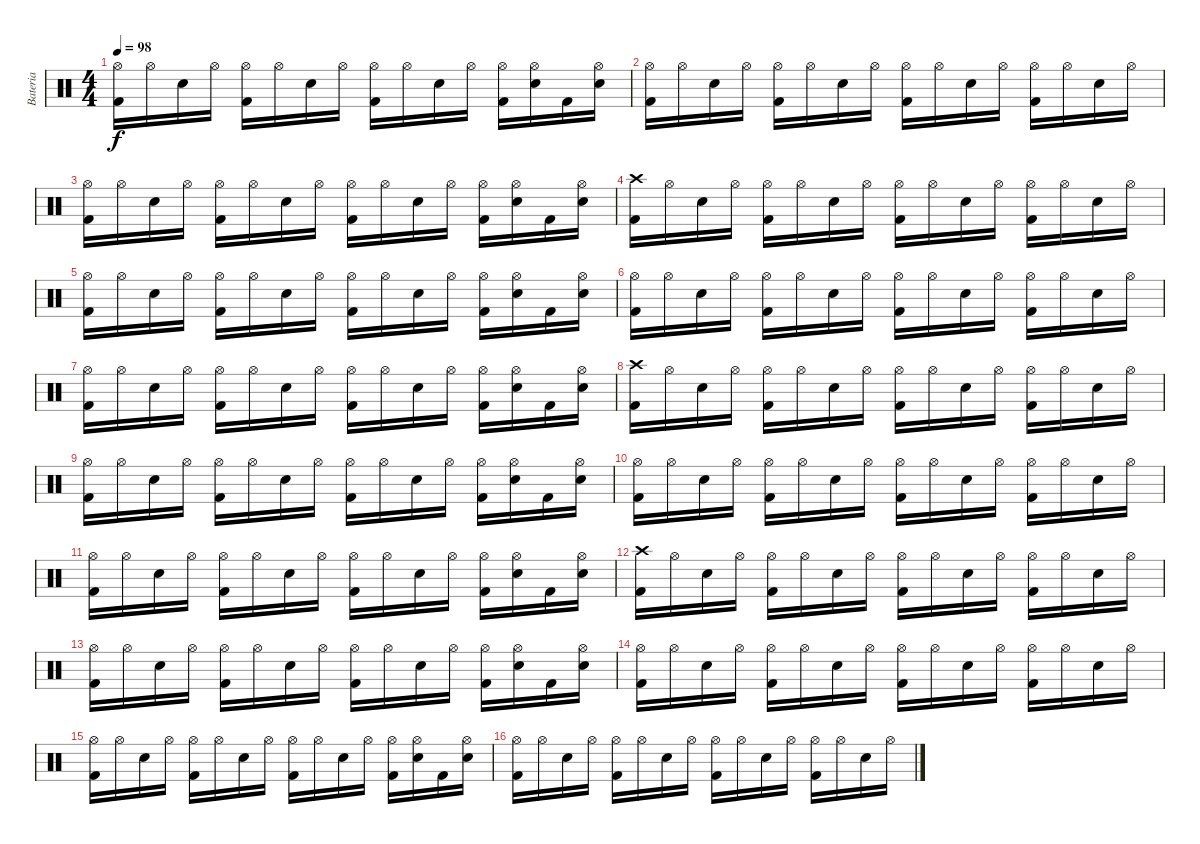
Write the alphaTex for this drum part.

\track ("Bateria" "Bateria") {instrument percussion}
\staff {score}
\articulation defaults
\ts (4 4)
\tempo 98
\clef neutral
\ks c
("Hi-Hat (open)" "Kick (hit) 2").16{dy f} "Hi-Hat (open)".16 "Snare (hit) 2".16 "Hi-Hat (open)".16 ("Hi-Hat (open)" "Kick (hit) 2").16 "Hi-Hat (open)".16 "Snare (hit) 2".16 "Hi-Hat (open)".16 ("Hi-Hat (open)" "Kick (hit) 2").16 "Hi-Hat (open)".16 "Snare (hit) 2".16 "Hi-Hat (open)".16 ("Hi-Hat (open)" "Kick (hit) 2").16 ("Hi-Hat (open)" "Snare (hit) 2").16 "Kick (hit) 2".16 ("Hi-Hat (open)" "Snare (hit) 2").16 |
("Hi-Hat (open)" "Kick (hit) 2").16 "Hi-Hat (open)".16 "Snare (hit) 2".16 "Hi-Hat (open)".16 ("Hi-Hat (open)" "Kick (hit) 2").16 "Hi-Hat (open)".16 "Snare (hit) 2".16 "Hi-Hat (open)".16 ("Hi-Hat (open)" "Kick (hit) 2").16 "Hi-Hat (open)".16 "Snare (hit) 2".16 "Hi-Hat (open)".16 ("Hi-Hat (open)" "Kick (hit) 2").16 "Hi-Hat (open)".16 "Snare (hit) 2".16 "Hi-Hat (open)".16 |
("Hi-Hat (open)" "Kick (hit) 2").16 "Hi-Hat (open)".16 "Snare (hit) 2".16 "Hi-Hat (open)".16 ("Hi-Hat (open)" "Kick (hit) 2").16 "Hi-Hat (open)".16 "Snare (hit) 2".16 "Hi-Hat (open)".16 ("Hi-Hat (open)" "Kick (hit) 2").16 "Hi-Hat (open)".16 "Snare (hit) 2".16 "Hi-Hat (open)".16 ("Hi-Hat (open)" "Kick (hit) 2").16 ("Hi-Hat (open)" "Snare (hit) 2").16 "Kick (hit) 2".16 ("Hi-Hat (open)" "Snare (hit) 2").16 |
("Crash high (hit)" "Kick (hit) 2").16 "Hi-Hat (open)".16 "Snare (hit) 2".16 "Hi-Hat (open)".16 ("Hi-Hat (open)" "Kick (hit) 2").16 "Hi-Hat (open)".16 "Snare (hit) 2".16 "Hi-Hat (open)".16 ("Hi-Hat (open)" "Kick (hit) 2").16 "Hi-Hat (open)".16 "Snare (hit) 2".16 "Hi-Hat (open)".16 ("Hi-Hat (open)" "Kick (hit) 2").16 "Hi-Hat (open)".16 "Snare (hit) 2".16 "Hi-Hat (open)".16 |
("Hi-Hat (open)" "Kick (hit) 2").16 "Hi-Hat (open)".16 "Snare (hit) 2".16 "Hi-Hat (open)".16 ("Hi-Hat (open)" "Kick (hit) 2").16 "Hi-Hat (open)".16 "Snare (hit) 2".16 "Hi-Hat (open)".16 ("Hi-Hat (open)" "Kick (hit) 2").16 "Hi-Hat (open)".16 "Snare (hit) 2".16 "Hi-Hat (open)".16 ("Hi-Hat (open)" "Kick (hit) 2").16 ("Hi-Hat (open)" "Snare (hit) 2").16 "Kick (hit) 2".16 ("Hi-Hat (open)" "Snare (hit) 2").16 |
("Hi-Hat (open)" "Kick (hit) 2").16 "Hi-Hat (open)".16 "Snare (hit) 2".16 "Hi-Hat (open)".16 ("Hi-Hat (open)" "Kick (hit) 2").16 "Hi-Hat (open)".16 "Snare (hit) 2".16 "Hi-Hat (open)".16 ("Hi-Hat (open)" "Kick (hit) 2").16 "Hi-Hat (open)".16 "Snare (hit) 2".16 "Hi-Hat (open)".16 ("Hi-Hat (open)" "Kick (hit) 2").16 "Hi-Hat (open)".16 "Snare (hit) 2".16 "Hi-Hat (open)".16 |
("Hi-Hat (open)" "Kick (hit) 2").16 "Hi-Hat (open)".16 "Snare (hit) 2".16 "Hi-Hat (open)".16 ("Hi-Hat (open)" "Kick (hit) 2").16 "Hi-Hat (open)".16 "Snare (hit) 2".16 "Hi-Hat (open)".16 ("Hi-Hat (open)" "Kick (hit) 2").16 "Hi-Hat (open)".16 "Snare (hit) 2".16 "Hi-Hat (open)".16 ("Hi-Hat (open)" "Kick (hit) 2").16 ("Hi-Hat (open)" "Snare (hit) 2").16 "Kick (hit) 2".16 ("Hi-Hat (open)" "Snare (hit) 2").16 |
("Crash high (hit)" "Kick (hit) 2").16 "Hi-Hat (open)".16 "Snare (hit) 2".16 "Hi-Hat (open)".16 ("Hi-Hat (open)" "Kick (hit) 2").16 "Hi-Hat (open)".16 "Snare (hit) 2".16 "Hi-Hat (open)".16 ("Hi-Hat (open)" "Kick (hit) 2").16 "Hi-Hat (open)".16 "Snare (hit) 2".16 "Hi-Hat (open)".16 ("Hi-Hat (open)" "Kick (hit) 2").16 "Hi-Hat (open)".16 "Snare (hit) 2".16 "Hi-Hat (open)".16 |
("Hi-Hat (open)" "Kick (hit) 2").16 "Hi-Hat (open)".16 "Snare (hit) 2".16 "Hi-Hat (open)".16 ("Hi-Hat (open)" "Kick (hit) 2").16 "Hi-Hat (open)".16 "Snare (hit) 2".16 "Hi-Hat (open)".16 ("Hi-Hat (open)" "Kick (hit) 2").16 "Hi-Hat (open)".16 "Snare (hit) 2".16 "Hi-Hat (open)".16 ("Hi-Hat (open)" "Kick (hit) 2").16 ("Hi-Hat (open)" "Snare (hit) 2").16 "Kick (hit) 2".16 ("Hi-Hat (open)" "Snare (hit) 2").16 |
("Hi-Hat (open)" "Kick (hit) 2").16 "Hi-Hat (open)".16 "Snare (hit) 2".16 "Hi-Hat (open)".16 ("Hi-Hat (open)" "Kick (hit) 2").16 "Hi-Hat (open)".16 "Snare (hit) 2".16 "Hi-Hat (open)".16 ("Hi-Hat (open)" "Kick (hit) 2").16 "Hi-Hat (open)".16 "Snare (hit) 2".16 "Hi-Hat (open)".16 ("Hi-Hat (open)" "Kick (hit) 2").16 "Hi-Hat (open)".16 "Snare (hit) 2".16 "Hi-Hat (open)".16 |
("Hi-Hat (open)" "Kick (hit) 2").16 "Hi-Hat (open)".16 "Snare (hit) 2".16 "Hi-Hat (open)".16 ("Hi-Hat (open)" "Kick (hit) 2").16 "Hi-Hat (open)".16 "Snare (hit) 2".16 "Hi-Hat (open)".16 ("Hi-Hat (open)" "Kick (hit) 2").16 "Hi-Hat (open)".16 "Snare (hit) 2".16 "Hi-Hat (open)".16 ("Hi-Hat (open)" "Kick (hit) 2").16 ("Hi-Hat (open)" "Snare (hit) 2").16 "Kick (hit) 2".16 ("Hi-Hat (open)" "Snare (hit) 2").16 |
("Crash high (hit)" "Kick (hit) 2").16 "Hi-Hat (open)".16 "Snare (hit) 2".16 "Hi-Hat (open)".16 ("Hi-Hat (open)" "Kick (hit) 2").16 "Hi-Hat (open)".16 "Snare (hit) 2".16 "Hi-Hat (open)".16 ("Hi-Hat (open)" "Kick (hit) 2").16 "Hi-Hat (open)".16 "Snare (hit) 2".16 "Hi-Hat (open)".16 ("Hi-Hat (open)" "Kick (hit) 2").16 "Hi-Hat (open)".16 "Snare (hit) 2".16 "Hi-Hat (open)".16 |
("Hi-Hat (open)" "Kick (hit) 2").16 "Hi-Hat (open)".16 "Snare (hit) 2".16 "Hi-Hat (open)".16 ("Hi-Hat (open)" "Kick (hit) 2").16 "Hi-Hat (open)".16 "Snare (hit) 2".16 "Hi-Hat (open)".16 ("Hi-Hat (open)" "Kick (hit) 2").16 "Hi-Hat (open)".16 "Snare (hit) 2".16 "Hi-Hat (open)".16 ("Hi-Hat (open)" "Kick (hit) 2").16 ("Hi-Hat (open)" "Snare (hit) 2").16 "Kick (hit) 2".16 ("Hi-Hat (open)" "Snare (hit) 2").16 |
("Hi-Hat (open)" "Kick (hit) 2").16 "Hi-Hat (open)".16 "Snare (hit) 2".16 "Hi-Hat (open)".16 ("Hi-Hat (open)" "Kick (hit) 2").16 "Hi-Hat (open)".16 "Snare (hit) 2".16 "Hi-Hat (open)".16 ("Hi-Hat (open)" "Kick (hit) 2").16 "Hi-Hat (open)".16 "Snare (hit) 2".16 "Hi-Hat (open)".16 ("Hi-Hat (open)" "Kick (hit) 2").16 "Hi-Hat (open)".16 "Snare (hit) 2".16 "Hi-Hat (open)".16 |
("Hi-Hat (open)" "Kick (hit) 2").16 "Hi-Hat (open)".16 "Snare (hit) 2".16 "Hi-Hat (open)".16 ("Hi-Hat (open)" "Kick (hit) 2").16 "Hi-Hat (open)".16 "Snare (hit) 2".16 "Hi-Hat (open)".16 ("Hi-Hat (open)" "Kick (hit) 2").16 "Hi-Hat (open)".16 "Snare (hit) 2".16 "Hi-Hat (open)".16 ("Hi-Hat (open)" "Kick (hit) 2").16 ("Hi-Hat (open)" "Snare (hit) 2").16 "Kick (hit) 2".16 ("Hi-Hat (open)" "Snare (hit) 2").16 |
("Hi-Hat (open)" "Kick (hit) 2").16 "Hi-Hat (open)".16 "Snare (hit) 2".16 "Hi-Hat (open)".16 ("Hi-Hat (open)" "Kick (hit) 2").16 "Hi-Hat (open)".16 "Snare (hit) 2".16 "Hi-Hat (open)".16 ("Hi-Hat (open)" "Kick (hit) 2").16 "Hi-Hat (open)".16 "Snare (hit) 2".16 "Hi-Hat (open)".16 ("Hi-Hat (open)" "Kick (hit) 2").16 "Hi-Hat (open)".16 "Snare (hit) 2".16 "Hi-Hat (open)".16
